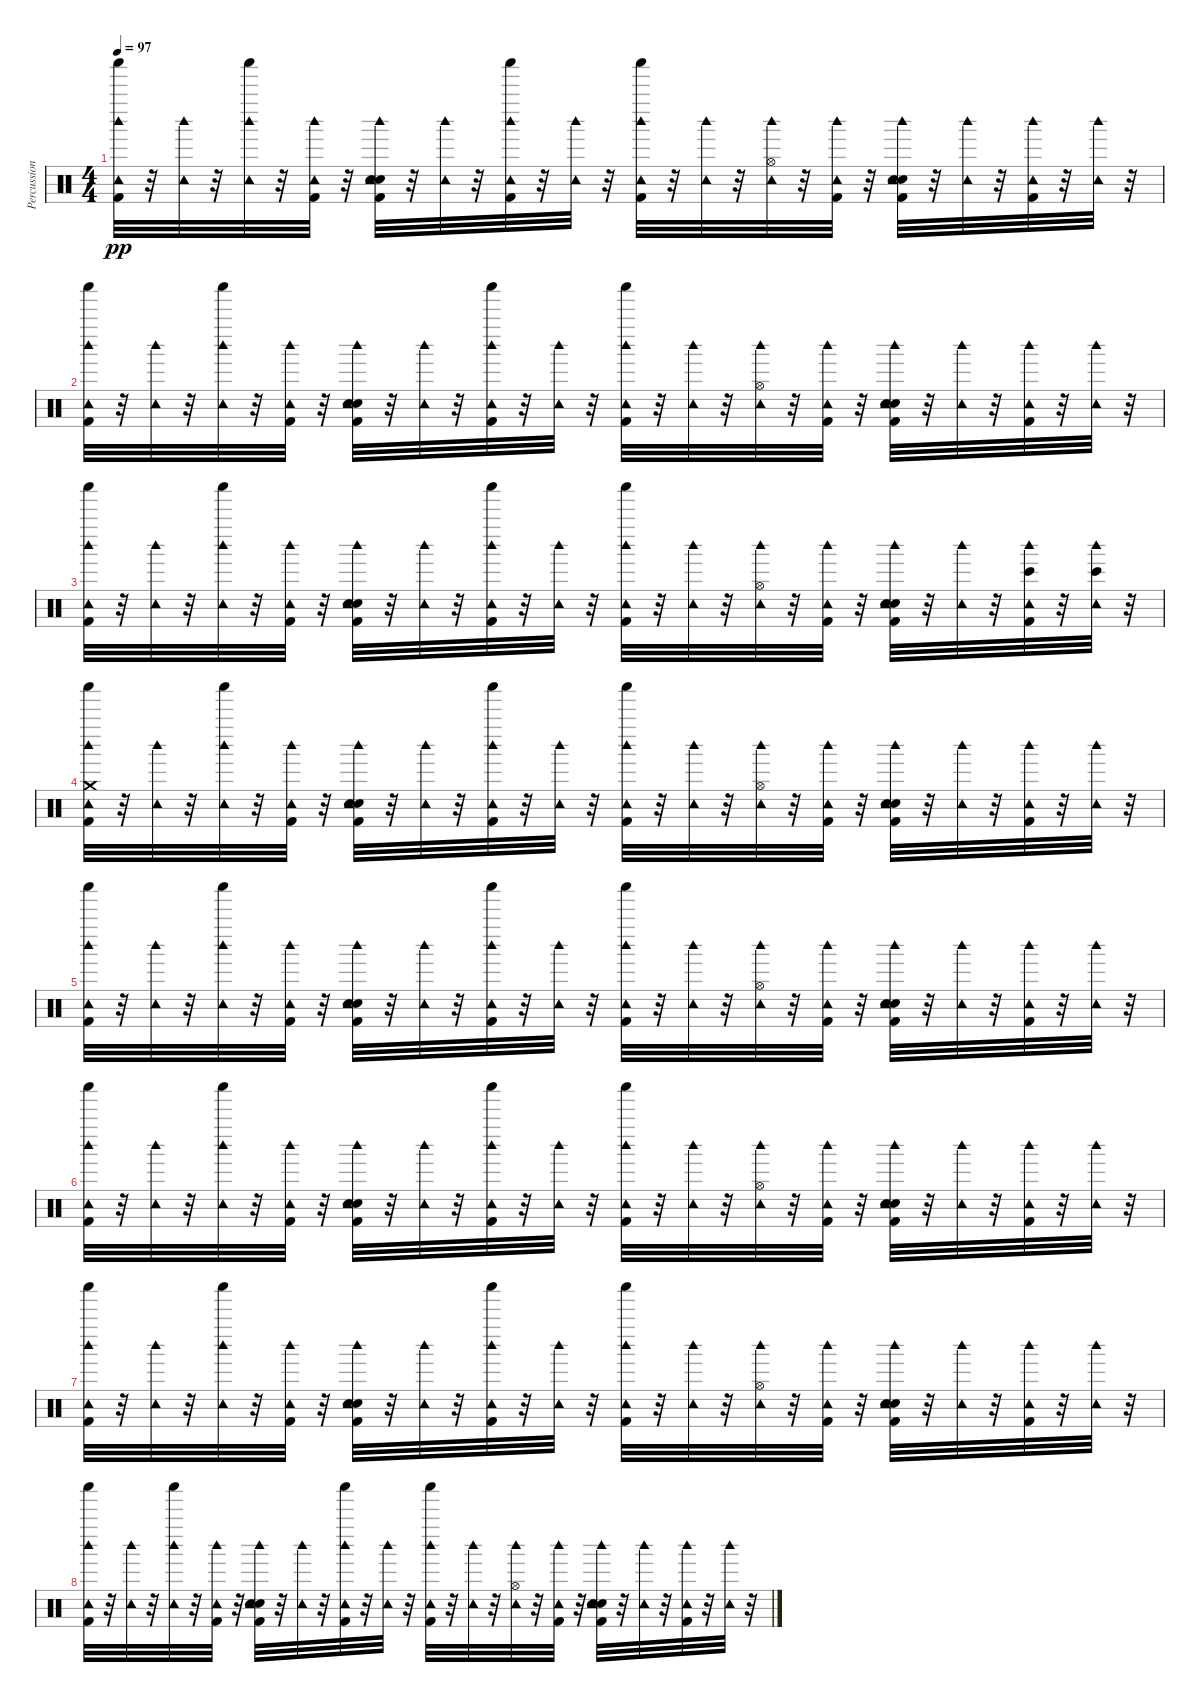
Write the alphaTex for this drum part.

\track ("Percussion" "Percussion") {instrument percussion}
\staff {score}
\articulation defaults
\ts (4 4)
\tempo 97
\clef neutral
\ks c
("Kick (hit) 2" "Tambourine (hit)" "Shaker (hit)" "Woodblock high (hit)").32{dy pp} r.32 ("Tambourine (hit)" "Woodblock high (hit)").32 r.32 ("Tambourine (hit)" "Shaker (hit)" "Woodblock high (hit)").32 r.32 ("Kick (hit) 2" "Tambourine (hit)" "Woodblock high (hit)").32 r.32 ("Kick (hit) 2" "Snare (hit) 2" "Hand Clap (hit)" "Tambourine (hit)" "Woodblock high (hit)").32 r.32 ("Tambourine (hit)" "Woodblock high (hit)").32 r.32 ("Kick (hit) 2" "Tambourine (hit)" "Shaker (hit)" "Woodblock high (hit)").32 r.32 ("Tambourine (hit)" "Woodblock high (hit)").32 r.32 ("Kick (hit) 2" "Tambourine (hit)" "Shaker (hit)" "Woodblock high (hit)").32 r.32 ("Tambourine (hit)" "Woodblock high (hit)").32 r.32 ("Hi-Hat (open)" "Tambourine (hit)" "Woodblock high (hit)").32 r.32 ("Kick (hit) 2" "Tambourine (hit)" "Woodblock high (hit)").32 r.32 ("Kick (hit) 2" "Snare (hit) 2" "Hand Clap (hit)" "Tambourine (hit)" "Woodblock high (hit)").32 r.32 ("Tambourine (hit)" "Woodblock high (hit)").32 r.32 ("Kick (hit) 2" "Tambourine (hit)" "Woodblock high (hit)").32 r.32 ("Tambourine (hit)" "Woodblock high (hit)").32 r.32 |
("Kick (hit) 2" "Tambourine (hit)" "Shaker (hit)" "Woodblock high (hit)").32 r.32 ("Tambourine (hit)" "Woodblock high (hit)").32 r.32 ("Tambourine (hit)" "Shaker (hit)" "Woodblock high (hit)").32 r.32 ("Kick (hit) 2" "Tambourine (hit)" "Woodblock high (hit)").32 r.32 ("Kick (hit) 2" "Snare (hit) 2" "Hand Clap (hit)" "Tambourine (hit)" "Woodblock high (hit)").32 r.32 ("Tambourine (hit)" "Woodblock high (hit)").32 r.32 ("Kick (hit) 2" "Tambourine (hit)" "Shaker (hit)" "Woodblock high (hit)").32 r.32 ("Tambourine (hit)" "Woodblock high (hit)").32 r.32 ("Kick (hit) 2" "Tambourine (hit)" "Shaker (hit)" "Woodblock high (hit)").32 r.32 ("Tambourine (hit)" "Woodblock high (hit)").32 r.32 ("Hi-Hat (open)" "Tambourine (hit)" "Woodblock high (hit)").32 r.32 ("Kick (hit) 2" "Tambourine (hit)" "Woodblock high (hit)").32 r.32 ("Kick (hit) 2" "Snare (hit) 2" "Hand Clap (hit)" "Tambourine (hit)" "Woodblock high (hit)").32 r.32 ("Tambourine (hit)" "Woodblock high (hit)").32 r.32 ("Kick (hit) 2" "Tambourine (hit)" "Woodblock high (hit)").32 r.32 ("Tambourine (hit)" "Woodblock high (hit)").32 r.32 |
("Kick (hit) 2" "Tambourine (hit)" "Shaker (hit)" "Woodblock high (hit)").32 r.32 ("Tambourine (hit)" "Woodblock high (hit)").32 r.32 ("Tambourine (hit)" "Shaker (hit)" "Woodblock high (hit)").32 r.32 ("Kick (hit) 2" "Tambourine (hit)" "Woodblock high (hit)").32 r.32 ("Kick (hit) 2" "Snare (hit) 2" "Hand Clap (hit)" "Tambourine (hit)" "Woodblock high (hit)").32 r.32 ("Tambourine (hit)" "Woodblock high (hit)").32 r.32 ("Kick (hit) 2" "Tambourine (hit)" "Shaker (hit)" "Woodblock high (hit)").32 r.32 ("Tambourine (hit)" "Woodblock high (hit)").32 r.32 ("Kick (hit) 2" "Tambourine (hit)" "Shaker (hit)" "Woodblock high (hit)").32 r.32 ("Tambourine (hit)" "Woodblock high (hit)").32 r.32 ("Hi-Hat (open)" "Tambourine (hit)" "Woodblock high (hit)").32 r.32 ("Kick (hit) 2" "Tambourine (hit)" "Woodblock high (hit)").32 r.32 ("Kick (hit) 2" "Snare (hit) 2" "Hand Clap (hit)" "Tambourine (hit)" "Woodblock high (hit)").32 r.32 ("Tambourine (hit)" "Woodblock high (hit)").32 r.32 ("Kick (hit) 2" "Tambourine (hit)" "Bongo High (hit)" "Woodblock high (hit)").32 r.32 ("Tambourine (hit)" "Bongo High (hit)" "Woodblock high (hit)").32 r.32 |
("Kick (hit) 2" "Tambourine (hit)" "Crash medium (hit)" "Shaker (hit)" "Woodblock high (hit)").32 r.32 ("Tambourine (hit)" "Woodblock high (hit)").32 r.32 ("Tambourine (hit)" "Shaker (hit)" "Woodblock high (hit)").32 r.32 ("Kick (hit) 2" "Tambourine (hit)" "Woodblock high (hit)").32 r.32 ("Kick (hit) 2" "Snare (hit) 2" "Hand Clap (hit)" "Tambourine (hit)" "Woodblock high (hit)").32 r.32 ("Tambourine (hit)" "Woodblock high (hit)").32 r.32 ("Kick (hit) 2" "Tambourine (hit)" "Shaker (hit)" "Woodblock high (hit)").32 r.32 ("Tambourine (hit)" "Woodblock high (hit)").32 r.32 ("Kick (hit) 2" "Tambourine (hit)" "Shaker (hit)" "Woodblock high (hit)").32 r.32 ("Tambourine (hit)" "Woodblock high (hit)").32 r.32 ("Hi-Hat (open)" "Tambourine (hit)" "Woodblock high (hit)").32 r.32 ("Kick (hit) 2" "Tambourine (hit)" "Woodblock high (hit)").32 r.32 ("Kick (hit) 2" "Snare (hit) 2" "Hand Clap (hit)" "Tambourine (hit)" "Woodblock high (hit)").32 r.32 ("Tambourine (hit)" "Woodblock high (hit)").32 r.32 ("Kick (hit) 2" "Tambourine (hit)" "Woodblock high (hit)").32 r.32 ("Tambourine (hit)" "Woodblock high (hit)").32 r.32 |
("Kick (hit) 2" "Tambourine (hit)" "Shaker (hit)" "Woodblock high (hit)").32 r.32 ("Tambourine (hit)" "Woodblock high (hit)").32 r.32 ("Tambourine (hit)" "Shaker (hit)" "Woodblock high (hit)").32 r.32 ("Kick (hit) 2" "Tambourine (hit)" "Woodblock high (hit)").32 r.32 ("Kick (hit) 2" "Snare (hit) 2" "Hand Clap (hit)" "Tambourine (hit)" "Woodblock high (hit)").32 r.32 ("Tambourine (hit)" "Woodblock high (hit)").32 r.32 ("Kick (hit) 2" "Tambourine (hit)" "Shaker (hit)" "Woodblock high (hit)").32 r.32 ("Tambourine (hit)" "Woodblock high (hit)").32 r.32 ("Kick (hit) 2" "Tambourine (hit)" "Shaker (hit)" "Woodblock high (hit)").32 r.32 ("Tambourine (hit)" "Woodblock high (hit)").32 r.32 ("Hi-Hat (open)" "Tambourine (hit)" "Woodblock high (hit)").32 r.32 ("Kick (hit) 2" "Tambourine (hit)" "Woodblock high (hit)").32 r.32 ("Kick (hit) 2" "Snare (hit) 2" "Hand Clap (hit)" "Tambourine (hit)" "Woodblock high (hit)").32 r.32 ("Tambourine (hit)" "Woodblock high (hit)").32 r.32 ("Kick (hit) 2" "Tambourine (hit)" "Woodblock high (hit)").32 r.32 ("Tambourine (hit)" "Woodblock high (hit)").32 r.32 |
("Kick (hit) 2" "Tambourine (hit)" "Shaker (hit)" "Woodblock high (hit)").32 r.32 ("Tambourine (hit)" "Woodblock high (hit)").32 r.32 ("Tambourine (hit)" "Shaker (hit)" "Woodblock high (hit)").32 r.32 ("Kick (hit) 2" "Tambourine (hit)" "Woodblock high (hit)").32 r.32 ("Kick (hit) 2" "Snare (hit) 2" "Hand Clap (hit)" "Tambourine (hit)" "Woodblock high (hit)").32 r.32 ("Tambourine (hit)" "Woodblock high (hit)").32 r.32 ("Kick (hit) 2" "Tambourine (hit)" "Shaker (hit)" "Woodblock high (hit)").32 r.32 ("Tambourine (hit)" "Woodblock high (hit)").32 r.32 ("Kick (hit) 2" "Tambourine (hit)" "Shaker (hit)" "Woodblock high (hit)").32 r.32 ("Tambourine (hit)" "Woodblock high (hit)").32 r.32 ("Hi-Hat (open)" "Tambourine (hit)" "Woodblock high (hit)").32 r.32 ("Kick (hit) 2" "Tambourine (hit)" "Woodblock high (hit)").32 r.32 ("Kick (hit) 2" "Snare (hit) 2" "Hand Clap (hit)" "Tambourine (hit)" "Woodblock high (hit)").32 r.32 ("Tambourine (hit)" "Woodblock high (hit)").32 r.32 ("Kick (hit) 2" "Tambourine (hit)" "Woodblock high (hit)").32 r.32 ("Tambourine (hit)" "Woodblock high (hit)").32 r.32 |
("Kick (hit) 2" "Tambourine (hit)" "Shaker (hit)" "Woodblock high (hit)").32 r.32 ("Tambourine (hit)" "Woodblock high (hit)").32 r.32 ("Tambourine (hit)" "Shaker (hit)" "Woodblock high (hit)").32 r.32 ("Kick (hit) 2" "Tambourine (hit)" "Woodblock high (hit)").32 r.32 ("Kick (hit) 2" "Snare (hit) 2" "Hand Clap (hit)" "Tambourine (hit)" "Woodblock high (hit)").32 r.32 ("Tambourine (hit)" "Woodblock high (hit)").32 r.32 ("Kick (hit) 2" "Tambourine (hit)" "Shaker (hit)" "Woodblock high (hit)").32 r.32 ("Tambourine (hit)" "Woodblock high (hit)").32 r.32 ("Kick (hit) 2" "Tambourine (hit)" "Shaker (hit)" "Woodblock high (hit)").32 r.32 ("Tambourine (hit)" "Woodblock high (hit)").32 r.32 ("Hi-Hat (open)" "Tambourine (hit)" "Woodblock high (hit)").32 r.32 ("Kick (hit) 2" "Tambourine (hit)" "Woodblock high (hit)").32 r.32 ("Kick (hit) 2" "Snare (hit) 2" "Hand Clap (hit)" "Tambourine (hit)" "Woodblock high (hit)").32 r.32 ("Tambourine (hit)" "Woodblock high (hit)").32 r.32 ("Kick (hit) 2" "Tambourine (hit)" "Woodblock high (hit)").32 r.32 ("Tambourine (hit)" "Woodblock high (hit)").32 r.32 |
("Kick (hit) 2" "Tambourine (hit)" "Shaker (hit)" "Woodblock high (hit)").32 r.32 ("Tambourine (hit)" "Woodblock high (hit)").32 r.32 ("Tambourine (hit)" "Shaker (hit)" "Woodblock high (hit)").32 r.32 ("Kick (hit) 2" "Tambourine (hit)" "Woodblock high (hit)").32 r.32 ("Kick (hit) 2" "Snare (hit) 2" "Hand Clap (hit)" "Tambourine (hit)" "Woodblock high (hit)").32 r.32 ("Tambourine (hit)" "Woodblock high (hit)").32 r.32 ("Kick (hit) 2" "Tambourine (hit)" "Shaker (hit)" "Woodblock high (hit)").32 r.32 ("Tambourine (hit)" "Woodblock high (hit)").32 r.32 ("Kick (hit) 2" "Tambourine (hit)" "Shaker (hit)" "Woodblock high (hit)").32 r.32 ("Tambourine (hit)" "Woodblock high (hit)").32 r.32 ("Hi-Hat (open)" "Tambourine (hit)" "Woodblock high (hit)").32 r.32 ("Kick (hit) 2" "Tambourine (hit)" "Woodblock high (hit)").32 r.32 ("Kick (hit) 2" "Snare (hit) 2" "Hand Clap (hit)" "Tambourine (hit)" "Woodblock high (hit)").32 r.32 ("Tambourine (hit)" "Woodblock high (hit)").32 r.32 ("Kick (hit) 2" "Tambourine (hit)" "Woodblock high (hit)").32 r.32 ("Tambourine (hit)" "Woodblock high (hit)").32 r.32
